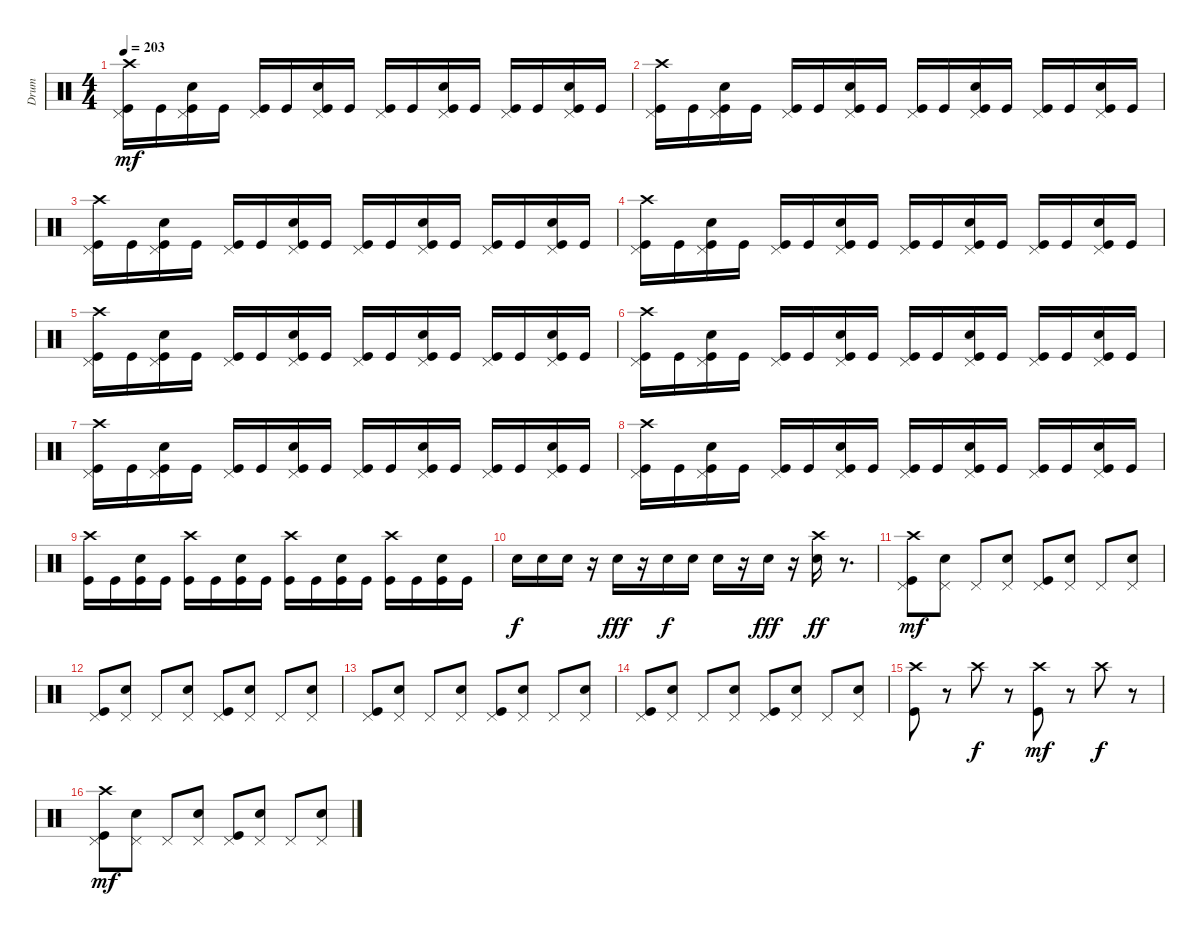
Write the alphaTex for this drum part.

\track ("Drum" "Drum") {instrument percussion}
\staff {score}
\articulation defaults
\ts (4 4)
\tempo 203
\clef neutral
\ks c
("Crash high (hit)" "Pedal Hi-Hat (hit)" "Kick (hit)").16{dy mf} "Kick (hit)".16 ("Pedal Hi-Hat (hit)" "Snare (hit) 2" "Kick (hit)").16 "Kick (hit)".16 ("Pedal Hi-Hat (hit)" "Kick (hit)").16 "Kick (hit)".16 ("Pedal Hi-Hat (hit)" "Snare (hit) 2" "Kick (hit)").16 "Kick (hit)".16 ("Pedal Hi-Hat (hit)" "Kick (hit)").16 "Kick (hit)".16 ("Pedal Hi-Hat (hit)" "Snare (hit) 2" "Kick (hit)").16 "Kick (hit)".16 ("Pedal Hi-Hat (hit)" "Kick (hit)").16 "Kick (hit)".16 ("Pedal Hi-Hat (hit)" "Snare (hit) 2" "Kick (hit)").16 "Kick (hit)".16 |
("Crash high (hit)" "Pedal Hi-Hat (hit)" "Kick (hit)").16 "Kick (hit)".16 ("Pedal Hi-Hat (hit)" "Snare (hit) 2" "Kick (hit)").16 "Kick (hit)".16 ("Pedal Hi-Hat (hit)" "Kick (hit)").16 "Kick (hit)".16 ("Pedal Hi-Hat (hit)" "Snare (hit) 2" "Kick (hit)").16 "Kick (hit)".16 ("Pedal Hi-Hat (hit)" "Kick (hit)").16 "Kick (hit)".16 ("Pedal Hi-Hat (hit)" "Snare (hit) 2" "Kick (hit)").16 "Kick (hit)".16 ("Pedal Hi-Hat (hit)" "Kick (hit)").16 "Kick (hit)".16 ("Pedal Hi-Hat (hit)" "Snare (hit) 2" "Kick (hit)").16 "Kick (hit)".16 |
("Crash high (hit)" "Pedal Hi-Hat (hit)" "Kick (hit)").16 "Kick (hit)".16 ("Pedal Hi-Hat (hit)" "Snare (hit) 2" "Kick (hit)").16 "Kick (hit)".16 ("Pedal Hi-Hat (hit)" "Kick (hit)").16 "Kick (hit)".16 ("Pedal Hi-Hat (hit)" "Snare (hit) 2" "Kick (hit)").16 "Kick (hit)".16 ("Pedal Hi-Hat (hit)" "Kick (hit)").16 "Kick (hit)".16 ("Pedal Hi-Hat (hit)" "Snare (hit) 2" "Kick (hit)").16 "Kick (hit)".16 ("Pedal Hi-Hat (hit)" "Kick (hit)").16 "Kick (hit)".16 ("Pedal Hi-Hat (hit)" "Snare (hit) 2" "Kick (hit)").16 "Kick (hit)".16 |
("Crash high (hit)" "Pedal Hi-Hat (hit)" "Kick (hit)").16 "Kick (hit)".16 ("Pedal Hi-Hat (hit)" "Snare (hit) 2" "Kick (hit)").16 "Kick (hit)".16 ("Pedal Hi-Hat (hit)" "Kick (hit)").16 "Kick (hit)".16 ("Pedal Hi-Hat (hit)" "Snare (hit) 2" "Kick (hit)").16 "Kick (hit)".16 ("Pedal Hi-Hat (hit)" "Kick (hit)").16 "Kick (hit)".16 ("Pedal Hi-Hat (hit)" "Snare (hit) 2" "Kick (hit)").16 "Kick (hit)".16 ("Pedal Hi-Hat (hit)" "Kick (hit)").16 "Kick (hit)".16 ("Pedal Hi-Hat (hit)" "Snare (hit) 2" "Kick (hit)").16 "Kick (hit)".16 |
("Crash high (hit)" "Pedal Hi-Hat (hit)" "Kick (hit)").16 "Kick (hit)".16 ("Pedal Hi-Hat (hit)" "Snare (hit) 2" "Kick (hit)").16 "Kick (hit)".16 ("Pedal Hi-Hat (hit)" "Kick (hit)").16 "Kick (hit)".16 ("Pedal Hi-Hat (hit)" "Snare (hit) 2" "Kick (hit)").16 "Kick (hit)".16 ("Pedal Hi-Hat (hit)" "Kick (hit)").16 "Kick (hit)".16 ("Pedal Hi-Hat (hit)" "Snare (hit) 2" "Kick (hit)").16 "Kick (hit)".16 ("Pedal Hi-Hat (hit)" "Kick (hit)").16 "Kick (hit)".16 ("Pedal Hi-Hat (hit)" "Snare (hit) 2" "Kick (hit)").16 "Kick (hit)".16 |
("Crash high (hit)" "Pedal Hi-Hat (hit)" "Kick (hit)").16 "Kick (hit)".16 ("Pedal Hi-Hat (hit)" "Snare (hit) 2" "Kick (hit)").16 "Kick (hit)".16 ("Pedal Hi-Hat (hit)" "Kick (hit)").16 "Kick (hit)".16 ("Pedal Hi-Hat (hit)" "Snare (hit) 2" "Kick (hit)").16 "Kick (hit)".16 ("Pedal Hi-Hat (hit)" "Kick (hit)").16 "Kick (hit)".16 ("Pedal Hi-Hat (hit)" "Snare (hit) 2" "Kick (hit)").16 "Kick (hit)".16 ("Pedal Hi-Hat (hit)" "Kick (hit)").16 "Kick (hit)".16 ("Pedal Hi-Hat (hit)" "Snare (hit) 2" "Kick (hit)").16 "Kick (hit)".16 |
("Crash high (hit)" "Pedal Hi-Hat (hit)" "Kick (hit)").16 "Kick (hit)".16 ("Pedal Hi-Hat (hit)" "Snare (hit) 2" "Kick (hit)").16 "Kick (hit)".16 ("Pedal Hi-Hat (hit)" "Kick (hit)").16 "Kick (hit)".16 ("Pedal Hi-Hat (hit)" "Snare (hit) 2" "Kick (hit)").16 "Kick (hit)".16 ("Pedal Hi-Hat (hit)" "Kick (hit)").16 "Kick (hit)".16 ("Pedal Hi-Hat (hit)" "Snare (hit) 2" "Kick (hit)").16 "Kick (hit)".16 ("Pedal Hi-Hat (hit)" "Kick (hit)").16 "Kick (hit)".16 ("Pedal Hi-Hat (hit)" "Snare (hit) 2" "Kick (hit)").16 "Kick (hit)".16 |
("Crash high (hit)" "Pedal Hi-Hat (hit)" "Kick (hit)").16 "Kick (hit)".16 ("Pedal Hi-Hat (hit)" "Snare (hit) 2" "Kick (hit)").16 "Kick (hit)".16 ("Pedal Hi-Hat (hit)" "Kick (hit)").16 "Kick (hit)".16 ("Pedal Hi-Hat (hit)" "Snare (hit) 2" "Kick (hit)").16 "Kick (hit)".16 ("Pedal Hi-Hat (hit)" "Kick (hit)").16 "Kick (hit)".16 ("Pedal Hi-Hat (hit)" "Snare (hit) 2" "Kick (hit)").16 "Kick (hit)".16 ("Pedal Hi-Hat (hit)" "Kick (hit)").16 "Kick (hit)".16 ("Pedal Hi-Hat (hit)" "Snare (hit) 2" "Kick (hit)").16 "Kick (hit)".16 |
("Crash high (hit)" "Kick (hit)").16 "Kick (hit)".16 ("Snare (hit) 2" "Kick (hit)").16 "Kick (hit)".16 ("Crash high (hit)" "Kick (hit)").16 "Kick (hit)".16 ("Snare (hit) 2" "Kick (hit)").16 "Kick (hit)".16 ("Crash high (hit)" "Kick (hit)").16 "Kick (hit)".16 ("Snare (hit) 2" "Kick (hit)").16 "Kick (hit)".16 ("Crash high (hit)" "Kick (hit)").16 "Kick (hit)".16 ("Snare (hit) 2" "Kick (hit)").16 "Kick (hit)".16 |
"Snare (hit) 2".16{dy f} "Snare (hit) 2".16 "Snare (hit) 2".16 r.16 "Snare (hit) 2".16{dy fff} r.16 "Snare (hit) 2".16{dy f} "Snare (hit) 2".16 "Snare (hit) 2".16 r.16 "Snare (hit) 2".16{dy fff} r.16 ("Crash high (hit)" "Snare (hit) 2").16{dy ff} r.8{d} |
("Pedal Hi-Hat (hit)" "Kick (hit)" "Crash high (hit)").8{dy mf} ("Pedal Hi-Hat (hit)" "Snare (hit) 2").8 "Pedal Hi-Hat (hit)".8 ("Pedal Hi-Hat (hit)" "Snare (hit) 2").8 ("Pedal Hi-Hat (hit)" "Kick (hit)").8 ("Pedal Hi-Hat (hit)" "Snare (hit) 2").8 "Pedal Hi-Hat (hit)".8 ("Pedal Hi-Hat (hit)" "Snare (hit) 2").8 |
("Pedal Hi-Hat (hit)" "Kick (hit)").8 ("Pedal Hi-Hat (hit)" "Snare (hit) 2").8 "Pedal Hi-Hat (hit)".8 ("Pedal Hi-Hat (hit)" "Snare (hit) 2").8 ("Pedal Hi-Hat (hit)" "Kick (hit)").8 ("Pedal Hi-Hat (hit)" "Snare (hit) 2").8 "Pedal Hi-Hat (hit)".8 ("Pedal Hi-Hat (hit)" "Snare (hit) 2").8 |
("Pedal Hi-Hat (hit)" "Kick (hit)").8 ("Pedal Hi-Hat (hit)" "Snare (hit) 2").8 "Pedal Hi-Hat (hit)".8 ("Pedal Hi-Hat (hit)" "Snare (hit) 2").8 ("Pedal Hi-Hat (hit)" "Kick (hit)").8 ("Pedal Hi-Hat (hit)" "Snare (hit) 2").8 "Pedal Hi-Hat (hit)".8 ("Pedal Hi-Hat (hit)" "Snare (hit) 2").8 |
("Pedal Hi-Hat (hit)" "Kick (hit)").8 ("Pedal Hi-Hat (hit)" "Snare (hit) 2").8 "Pedal Hi-Hat (hit)".8 ("Pedal Hi-Hat (hit)" "Snare (hit) 2").8 ("Pedal Hi-Hat (hit)" "Kick (hit)").8 ("Pedal Hi-Hat (hit)" "Snare (hit) 2").8 "Pedal Hi-Hat (hit)".8 ("Pedal Hi-Hat (hit)" "Snare (hit) 2").8 |
("Crash high (hit)" "Kick (hit)").8 r.8 "Crash high (hit)".8{dy f} r.8 ("Crash high (hit)" "Kick (hit)").8{dy mf} r.8 "Crash high (hit)".8{dy f} r.8 |
("Pedal Hi-Hat (hit)" "Kick (hit)" "Crash high (hit)").8{dy mf} ("Pedal Hi-Hat (hit)" "Snare (hit) 2").8 "Pedal Hi-Hat (hit)".8 ("Pedal Hi-Hat (hit)" "Snare (hit) 2").8 ("Pedal Hi-Hat (hit)" "Kick (hit)").8 ("Pedal Hi-Hat (hit)" "Snare (hit) 2").8 "Pedal Hi-Hat (hit)".8 ("Pedal Hi-Hat (hit)" "Snare (hit) 2").8
